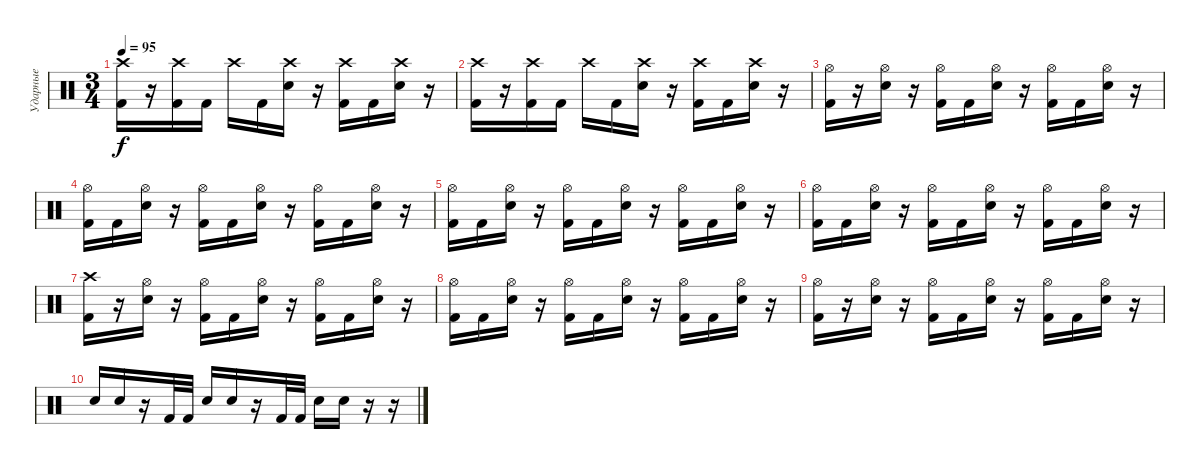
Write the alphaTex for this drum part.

\track ("Ударные" "Ударные") {instrument percussion}
\staff {score}
\articulation defaults
\ts (3 4)
\tempo 95
\clef neutral
\ks c
("Crash high (hit)" "Kick (hit) 2").16{dy f} r.16 ("Crash high (hit)" "Kick (hit) 2").16 "Kick (hit) 2".16 "Crash high (hit)".16 "Kick (hit) 2".16 ("Crash high (hit)" "Electric Snare (hit)").16 r.16 ("Crash high (hit)" "Kick (hit) 2").16 "Kick (hit) 2".16 ("Crash high (hit)" "Electric Snare (hit)").16 r.16 |
("Crash high (hit)" "Kick (hit) 2").16 r.16 ("Crash high (hit)" "Kick (hit) 2").16 "Kick (hit) 2".16 "Crash high (hit)".16 "Kick (hit) 2".16 ("Crash high (hit)" "Electric Snare (hit)").16 r.16 ("Crash high (hit)" "Kick (hit) 2").16 "Kick (hit) 2".16 ("Crash high (hit)" "Electric Snare (hit)").16 r.16 |
("Hi-Hat (open)" "Kick (hit) 2").16 r.16 ("Hi-Hat (open)" "Electric Snare (hit)").16 r.16 ("Hi-Hat (open)" "Kick (hit) 2").16 "Kick (hit) 2".16 ("Hi-Hat (open)" "Electric Snare (hit)").16 r.16 ("Hi-Hat (open)" "Kick (hit) 2").16 "Kick (hit) 2".16 ("Hi-Hat (open)" "Electric Snare (hit)").16 r.16 |
("Hi-Hat (open)" "Kick (hit) 2").16 "Kick (hit) 2".16 ("Hi-Hat (open)" "Electric Snare (hit)").16 r.16 ("Hi-Hat (open)" "Kick (hit) 2").16 "Kick (hit) 2".16 ("Hi-Hat (open)" "Electric Snare (hit)").16 r.16 ("Hi-Hat (open)" "Kick (hit) 2").16 "Kick (hit) 2".16 ("Hi-Hat (open)" "Electric Snare (hit)").16 r.16 |
("Hi-Hat (open)" "Kick (hit) 2").16 "Kick (hit) 2".16 ("Hi-Hat (open)" "Electric Snare (hit)").16 r.16 ("Hi-Hat (open)" "Kick (hit) 2").16 "Kick (hit) 2".16 ("Hi-Hat (open)" "Electric Snare (hit)").16 r.16 ("Hi-Hat (open)" "Kick (hit) 2").16 "Kick (hit) 2".16 ("Hi-Hat (open)" "Electric Snare (hit)").16 r.16 |
("Hi-Hat (open)" "Kick (hit) 2").16 "Kick (hit) 2".16 ("Hi-Hat (open)" "Electric Snare (hit)").16 r.16 ("Hi-Hat (open)" "Kick (hit) 2").16 "Kick (hit) 2".16 ("Hi-Hat (open)" "Electric Snare (hit)").16 r.16 ("Hi-Hat (open)" "Kick (hit) 2").16 "Kick (hit) 2".16 ("Hi-Hat (open)" "Electric Snare (hit)").16 r.16 |
("Crash high (hit)" "Kick (hit) 2").16 r.16 ("Hi-Hat (open)" "Electric Snare (hit)").16 r.16 ("Hi-Hat (open)" "Kick (hit) 2").16 "Kick (hit) 2".16 ("Hi-Hat (open)" "Electric Snare (hit)").16 r.16 ("Hi-Hat (open)" "Kick (hit) 2").16 "Kick (hit) 2".16 ("Hi-Hat (open)" "Electric Snare (hit)").16 r.16 |
("Hi-Hat (open)" "Kick (hit) 2").16 "Kick (hit) 2".16 ("Hi-Hat (open)" "Electric Snare (hit)").16 r.16 ("Hi-Hat (open)" "Kick (hit) 2").16 "Kick (hit) 2".16 ("Hi-Hat (open)" "Electric Snare (hit)").16 r.16 ("Hi-Hat (open)" "Kick (hit) 2").16 "Kick (hit) 2".16 ("Hi-Hat (open)" "Electric Snare (hit)").16 r.16 |
("Hi-Hat (open)" "Kick (hit) 2").16 r.16 ("Hi-Hat (open)" "Electric Snare (hit)").16 r.16 ("Hi-Hat (open)" "Kick (hit) 2").16 "Kick (hit) 2".16 ("Hi-Hat (open)" "Electric Snare (hit)").16 r.16 ("Hi-Hat (open)" "Kick (hit) 2").16 "Kick (hit) 2".16 ("Hi-Hat (open)" "Electric Snare (hit)").16 r.16 |
"Electric Snare (hit)".16 "Electric Snare (hit)".16 r.16 "Kick (hit) 2".32 "Kick (hit) 2".32 "Electric Snare (hit)".16 "Electric Snare (hit)".16 r.16 "Kick (hit) 2".32 "Kick (hit) 2".32 "Electric Snare (hit)".16 "Electric Snare (hit)".16 r.16 r.16
